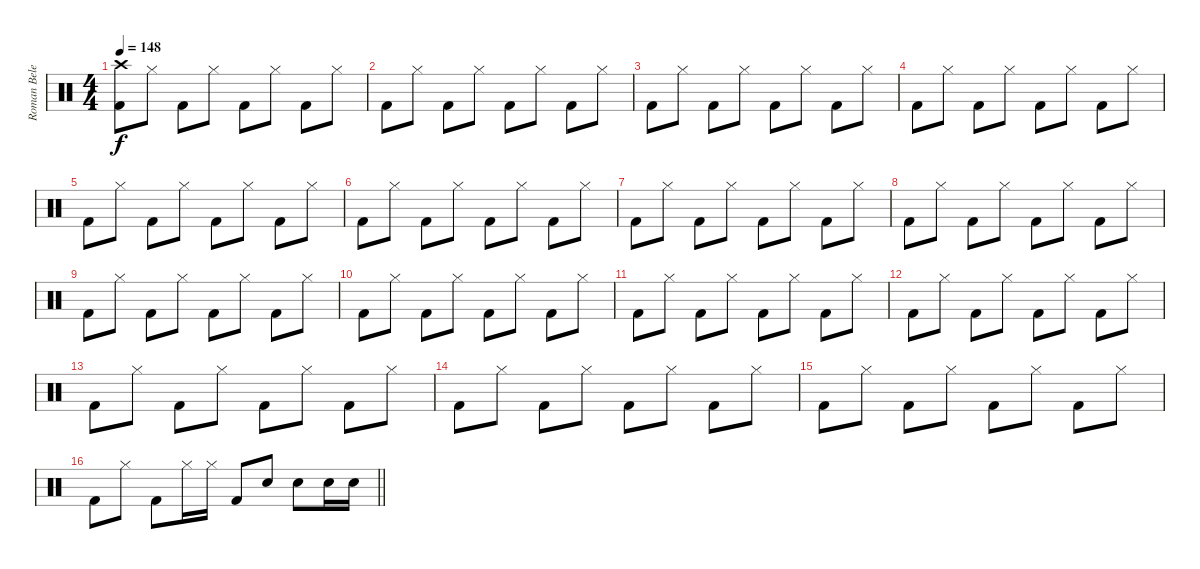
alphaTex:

\track ("Roman Belenkiy" "Roman Bele") {instrument percussion}
\staff {score}
\articulation defaults
\ts (4 4)
\section ("" "")
\tempo 148
\clef neutral
\ks c
("Crash high (hit)" "Kick (hit) 2").8{dy f} "Hi-Hat (closed)".8 "Kick (hit) 2".8 "Hi-Hat (closed)".8 "Kick (hit) 2".8 "Hi-Hat (closed)".8 "Kick (hit) 2".8 "Hi-Hat (closed)".8 |
"Kick (hit) 2".8 "Hi-Hat (closed)".8 "Kick (hit) 2".8 "Hi-Hat (closed)".8 "Kick (hit) 2".8 "Hi-Hat (closed)".8 "Kick (hit) 2".8 "Hi-Hat (closed)".8 |
"Kick (hit) 2".8 "Hi-Hat (closed)".8 "Kick (hit) 2".8 "Hi-Hat (closed)".8 "Kick (hit) 2".8 "Hi-Hat (closed)".8 "Kick (hit) 2".8 "Hi-Hat (closed)".8 |
"Kick (hit) 2".8 "Hi-Hat (closed)".8 "Kick (hit) 2".8 "Hi-Hat (closed)".8 "Kick (hit) 2".8 "Hi-Hat (closed)".8 "Kick (hit) 2".8 "Hi-Hat (closed)".8 |
"Kick (hit) 2".8 "Hi-Hat (closed)".8 "Kick (hit) 2".8 "Hi-Hat (closed)".8 "Kick (hit) 2".8 "Hi-Hat (closed)".8 "Kick (hit) 2".8 "Hi-Hat (closed)".8 |
"Kick (hit) 2".8 "Hi-Hat (closed)".8 "Kick (hit) 2".8 "Hi-Hat (closed)".8 "Kick (hit) 2".8 "Hi-Hat (closed)".8 "Kick (hit) 2".8 "Hi-Hat (closed)".8 |
"Kick (hit) 2".8 "Hi-Hat (closed)".8 "Kick (hit) 2".8 "Hi-Hat (closed)".8 "Kick (hit) 2".8 "Hi-Hat (closed)".8 "Kick (hit) 2".8 "Hi-Hat (closed)".8 |
"Kick (hit) 2".8 "Hi-Hat (closed)".8 "Kick (hit) 2".8 "Hi-Hat (closed)".8 "Kick (hit) 2".8 "Hi-Hat (closed)".8 "Kick (hit) 2".8 "Hi-Hat (closed)".8 |
"Kick (hit) 2".8 "Hi-Hat (closed)".8 "Kick (hit) 2".8 "Hi-Hat (closed)".8 "Kick (hit) 2".8 "Hi-Hat (closed)".8 "Kick (hit) 2".8 "Hi-Hat (closed)".8 |
"Kick (hit) 2".8 "Hi-Hat (closed)".8 "Kick (hit) 2".8 "Hi-Hat (closed)".8 "Kick (hit) 2".8 "Hi-Hat (closed)".8 "Kick (hit) 2".8 "Hi-Hat (closed)".8 |
"Kick (hit) 2".8 "Hi-Hat (closed)".8 "Kick (hit) 2".8 "Hi-Hat (closed)".8 "Kick (hit) 2".8 "Hi-Hat (closed)".8 "Kick (hit) 2".8 "Hi-Hat (closed)".8 |
"Kick (hit) 2".8 "Hi-Hat (closed)".8 "Kick (hit) 2".8 "Hi-Hat (closed)".8 "Kick (hit) 2".8 "Hi-Hat (closed)".8 "Kick (hit) 2".8 "Hi-Hat (closed)".8 |
"Kick (hit) 2".8 "Hi-Hat (closed)".8 "Kick (hit) 2".8 "Hi-Hat (closed)".8 "Kick (hit) 2".8 "Hi-Hat (closed)".8 "Kick (hit) 2".8 "Hi-Hat (closed)".8 |
"Kick (hit) 2".8 "Hi-Hat (closed)".8 "Kick (hit) 2".8 "Hi-Hat (closed)".8 "Kick (hit) 2".8 "Hi-Hat (closed)".8 "Kick (hit) 2".8 "Hi-Hat (closed)".8 |
"Kick (hit) 2".8 "Hi-Hat (closed)".8 "Kick (hit) 2".8 "Hi-Hat (closed)".8 "Kick (hit) 2".8 "Hi-Hat (closed)".8 "Kick (hit) 2".8 "Hi-Hat (closed)".8 |
\barLineRight lightlight "Kick (hit) 2".8 "Hi-Hat (closed)".8 "Kick (hit) 2".8 "Hi-Hat (closed)".16 "Hi-Hat (closed)".16 "Kick (hit) 2".8 "Snare (hit) 2".8 "Snare (hit) 2".8 "Snare (hit) 2".16 "Snare (hit) 2".16
